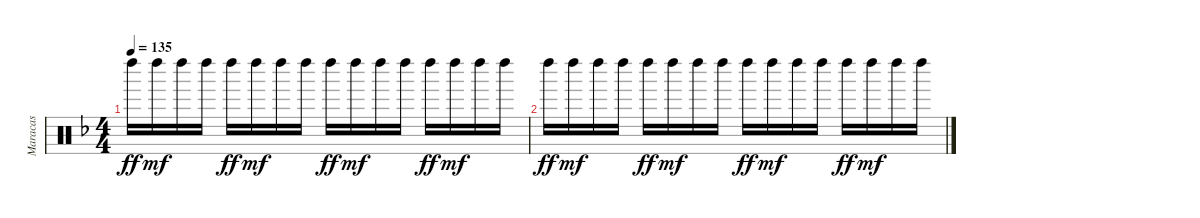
\track ("Maracas" "Maracas") {instrument percussion}
\staff {score}
\articulation defaults
\ts (4 4)
\tempo 135
\clef neutral
\ks f "Left Maraca (hit)".16{dy ff} "Left Maraca (hit)".16{dy mf} "Left Maraca (hit)".16 "Left Maraca (hit)".16 "Left Maraca (hit)".16{dy ff} "Left Maraca (hit)".16{dy mf} "Left Maraca (hit)".16 "Left Maraca (hit)".16 "Left Maraca (hit)".16{dy ff} "Left Maraca (hit)".16{dy mf} "Left Maraca (hit)".16 "Left Maraca (hit)".16 "Left Maraca (hit)".16{dy ff} "Left Maraca (hit)".16{dy mf} "Left Maraca (hit)".16 "Left Maraca (hit)".16
|
"Left Maraca (hit)".16{dy ff} "Left Maraca (hit)".16{dy mf} "Left Maraca (hit)".16 "Left Maraca (hit)".16 "Left Maraca (hit)".16{dy ff} "Left Maraca (hit)".16{dy mf} "Left Maraca (hit)".16 "Left Maraca (hit)".16 "Left Maraca (hit)".16{dy ff} "Left Maraca (hit)".16{dy mf} "Left Maraca (hit)".16 "Left Maraca (hit)".16 "Left Maraca (hit)".16{dy ff} "Left Maraca (hit)".16{dy mf} "Left Maraca (hit)".16 "Left Maraca (hit)".16
